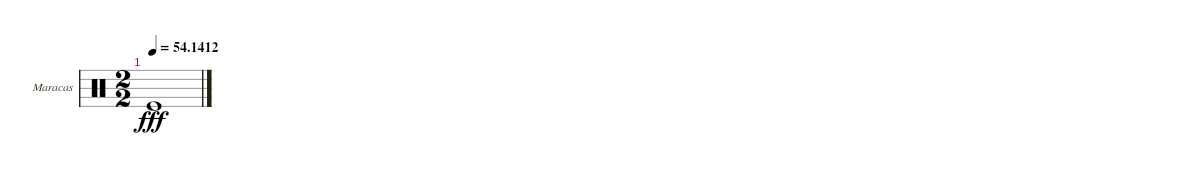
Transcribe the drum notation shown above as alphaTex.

\bracketExtendMode groupsimilarinstruments
\multiTrackTrackNamePolicy hidden
\firstSystemTrackNameOrientation horizontal
\otherSystemsTrackNameOrientation horizontal
\track ("Maracas" "Maracas") {mute instrument percussion}
\staff {score}
\articulation defaults
\ts (2 2)
\tempo
54.1412
\accidentals auto
\clef neutral
\ottava regular
\simile none
\ks c "Kick (hit)".1{dy fff}
